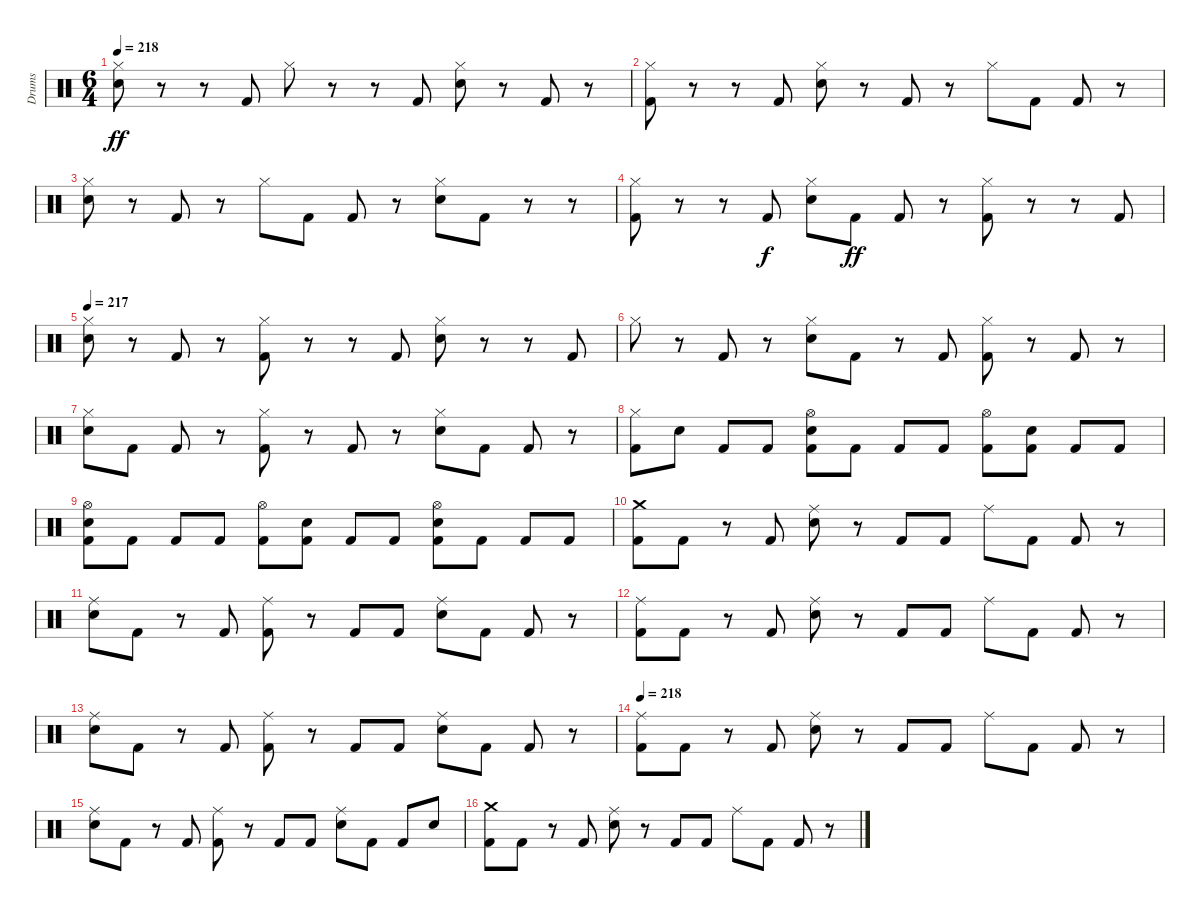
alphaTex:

\track ("Drums" "Drums") {instrument percussion}
\staff {score}
\articulation defaults
\ts (6 4)
\tempo 218
\clef neutral
\ks c
("Hi-Hat (closed)" "Electric Snare (hit)").8{dy ff} r.8 r.8 "Kick (hit) 2".8 "Hi-Hat (closed)".8 r.8 r.8 "Kick (hit) 2".8 ("Hi-Hat (closed)" "Electric Snare (hit)").8 r.8 "Kick (hit) 2".8 r.8 |
("Hi-Hat (closed)" "Kick (hit) 2").8 r.8 r.8 "Kick (hit) 2".8 ("Hi-Hat (closed)" "Electric Snare (hit)").8 r.8 "Kick (hit) 2".8 r.8 "Hi-Hat (closed)".8 "Kick (hit) 2".8 "Kick (hit) 2".8 r.8 |
("Hi-Hat (closed)" "Electric Snare (hit)").8 r.8 "Kick (hit) 2".8 r.8 "Hi-Hat (closed)".8 "Kick (hit) 2".8 "Kick (hit) 2".8 r.8 ("Hi-Hat (closed)" "Electric Snare (hit)").8 "Kick (hit) 2".8 r.8 r.8 |
("Hi-Hat (closed)" "Kick (hit) 2").8 r.8 r.8 "Kick (hit) 2".8{dy f} ("Hi-Hat (closed)" "Electric Snare (hit)").8 "Kick (hit) 2".8{dy ff} "Kick (hit) 2".8 r.8 ("Hi-Hat (closed)" "Kick (hit) 2").8 r.8 r.8 "Kick (hit) 2".8 |
\tempo 217
("Hi-Hat (closed)" "Electric Snare (hit)").8 r.8 "Kick (hit) 2".8 r.8 ("Hi-Hat (closed)" "Kick (hit) 2").8 r.8 r.8 "Kick (hit) 2".8 ("Hi-Hat (closed)" "Electric Snare (hit)").8 r.8 r.8 "Kick (hit) 2".8 |
"Hi-Hat (closed)".8 r.8 "Kick (hit) 2".8 r.8 ("Hi-Hat (closed)" "Electric Snare (hit)").8 "Kick (hit) 2".8 r.8 "Kick (hit) 2".8 ("Hi-Hat (closed)" "Kick (hit) 2").8 r.8 "Kick (hit) 2".8 r.8 |
("Hi-Hat (closed)" "Electric Snare (hit)").8 "Kick (hit) 2".8 "Kick (hit) 2".8 r.8 ("Hi-Hat (closed)" "Kick (hit) 2").8 r.8 "Kick (hit) 2".8 r.8 ("Hi-Hat (closed)" "Electric Snare (hit)").8 "Kick (hit) 2".8 "Kick (hit) 2".8 r.8 |
("Hi-Hat (closed)" "Kick (hit) 2").8 "Electric Snare (hit)".8 "Kick (hit) 2".8 "Kick (hit) 2".8 ("Hi-Hat (open)" "Electric Snare (hit)" "Kick (hit) 2").8 "Kick (hit) 2".8 "Kick (hit) 2".8 "Kick (hit) 2".8 ("Hi-Hat (open)" "Kick (hit) 2").8 ("Electric Snare (hit)" "Kick (hit) 2").8 "Kick (hit) 2".8 "Kick (hit) 2".8 |
("Hi-Hat (open)" "Electric Snare (hit)" "Kick (hit) 2").8 "Kick (hit) 2".8 "Kick (hit) 2".8 "Kick (hit) 2".8 ("Hi-Hat (open)" "Kick (hit) 2").8 ("Electric Snare (hit)" "Kick (hit) 2").8 "Kick (hit) 2".8 "Kick (hit) 2".8 ("Hi-Hat (open)" "Electric Snare (hit)" "Kick (hit) 2").8 "Kick (hit) 2".8 "Kick (hit) 2".8 "Kick (hit) 2".8 |
("Crash medium (hit)" "Kick (hit) 2").8 "Kick (hit) 2".8 r.8 "Kick (hit) 2".8 ("Ride (middle)" "Electric Snare (hit)").8 r.8 "Kick (hit) 2".8 "Kick (hit) 2".8 "Ride (middle)".8 "Kick (hit) 2".8 "Kick (hit) 2".8 r.8 |
("Ride (middle)" "Electric Snare (hit)").8 "Kick (hit) 2".8 r.8 "Kick (hit) 2".8 ("Ride (middle)" "Kick (hit) 2").8 r.8 "Kick (hit) 2".8 "Kick (hit) 2".8 ("Ride (middle)" "Electric Snare (hit)").8 "Kick (hit) 2".8 "Kick (hit) 2".8 r.8 |
("Ride (middle)" "Kick (hit) 2").8 "Kick (hit) 2".8 r.8 "Kick (hit) 2".8 ("Ride (middle)" "Electric Snare (hit)").8 r.8 "Kick (hit) 2".8 "Kick (hit) 2".8 "Ride (middle)".8 "Kick (hit) 2".8 "Kick (hit) 2".8 r.8 |
("Ride (middle)" "Electric Snare (hit)").8 "Kick (hit) 2".8 r.8 "Kick (hit) 2".8 ("Ride (middle)" "Kick (hit) 2").8 r.8 "Kick (hit) 2".8 "Kick (hit) 2".8 ("Ride (middle)" "Electric Snare (hit)").8 "Kick (hit) 2".8 "Kick (hit) 2".8 r.8 |
\tempo 218
("Ride (middle)" "Kick (hit) 2").8 "Kick (hit) 2".8 r.8 "Kick (hit) 2".8 ("Ride (middle)" "Electric Snare (hit)").8 r.8 "Kick (hit) 2".8 "Kick (hit) 2".8 "Ride (middle)".8 "Kick (hit) 2".8 "Kick (hit) 2".8 r.8 |
("Ride (middle)" "Electric Snare (hit)").8 "Kick (hit) 2".8 r.8 "Kick (hit) 2".8 ("Ride (middle)" "Kick (hit) 2").8 r.8 "Kick (hit) 2".8 "Kick (hit) 2".8 ("Ride (middle)" "Electric Snare (hit)").8 "Kick (hit) 2".8 "Kick (hit) 2".8 "Electric Snare (hit)".8 |
("Crash medium (hit)" "Kick (hit) 2").8 "Kick (hit) 2".8 r.8 "Kick (hit) 2".8 ("Ride (middle)" "Electric Snare (hit)").8 r.8 "Kick (hit) 2".8 "Kick (hit) 2".8 "Ride (middle)".8 "Kick (hit) 2".8 "Kick (hit) 2".8 r.8
